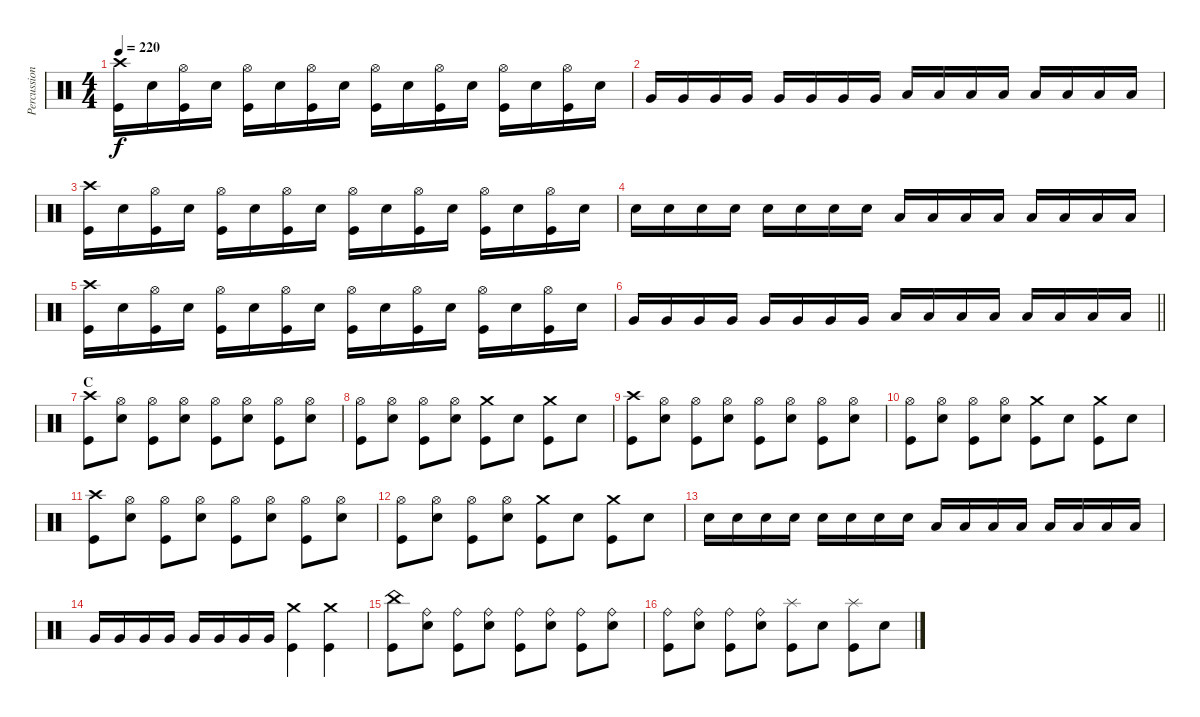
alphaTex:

\track ("Percussion" "Percussion") {instrument percussion}
\staff {score}
\articulation defaults
\ts (4 4)
\tempo 220
\clef neutral
\ks c
("Crash high (hit)" "Kick (hit)").16{dy f} "Snare (hit) 2".16 ("Hi-Hat (open)" "Kick (hit)").16 "Snare (hit) 2".16 ("Hi-Hat (open)" "Kick (hit)").16 "Snare (hit) 2".16 ("Hi-Hat (open)" "Kick (hit)").16 "Snare (hit) 2".16 ("Hi-Hat (open)" "Kick (hit)").16 "Snare (hit) 2".16 ("Hi-Hat (open)" "Kick (hit)").16 "Snare (hit) 2".16 ("Hi-Hat (open)" "Kick (hit)").16 "Snare (hit) 2".16 ("Hi-Hat (open)" "Kick (hit)").16 "Snare (hit) 2".16 |
"Very Low Tom (hit)".16 "Very Low Tom (hit)".16 "Very Low Tom (hit)".16 "Very Low Tom (hit)".16 "Very Low Tom (hit)".16 "Very Low Tom (hit)".16 "Very Low Tom (hit)".16 "Very Low Tom (hit)".16 "Low Floor Tom (hit)".16 "Low Floor Tom (hit)".16 "Low Floor Tom (hit)".16 "Low Floor Tom (hit)".16 "Low Floor Tom (hit)".16 "Low Floor Tom (hit)".16 "Low Floor Tom (hit)".16 "Low Floor Tom (hit)".16 |
("Crash high (hit)" "Kick (hit)").16 "Snare (hit) 2".16 ("Hi-Hat (open)" "Kick (hit)").16 "Snare (hit) 2".16 ("Hi-Hat (open)" "Kick (hit)").16 "Snare (hit) 2".16 ("Hi-Hat (open)" "Kick (hit)").16 "Snare (hit) 2".16 ("Hi-Hat (open)" "Kick (hit)").16 "Snare (hit) 2".16 ("Hi-Hat (open)" "Kick (hit)").16 "Snare (hit) 2".16 ("Hi-Hat (open)" "Kick (hit)").16 "Snare (hit) 2".16 ("Hi-Hat (open)" "Kick (hit)").16 "Snare (hit) 2".16 |
"Snare (hit) 2".16 "Snare (hit) 2".16 "Snare (hit) 2".16 "Snare (hit) 2".16 "Snare (hit) 2".16 "Snare (hit) 2".16 "Snare (hit) 2".16 "Snare (hit) 2".16 "Low Tom (hit)".16 "Low Tom (hit)".16 "Low Tom (hit)".16 "Low Tom (hit)".16 "Low Tom (hit)".16 "Low Tom (hit)".16 "Low Tom (hit)".16 "Low Tom (hit)".16 |
("Crash high (hit)" "Kick (hit)").16 "Snare (hit) 2".16 ("Hi-Hat (open)" "Kick (hit)").16 "Snare (hit) 2".16 ("Hi-Hat (open)" "Kick (hit)").16 "Snare (hit) 2".16 ("Hi-Hat (open)" "Kick (hit)").16 "Snare (hit) 2".16 ("Hi-Hat (open)" "Kick (hit)").16 "Snare (hit) 2".16 ("Hi-Hat (open)" "Kick (hit)").16 "Snare (hit) 2".16 ("Hi-Hat (open)" "Kick (hit)").16 "Snare (hit) 2".16 ("Hi-Hat (open)" "Kick (hit)").16 "Snare (hit) 2".16 |
\barLineRight lightlight "Very Low Tom (hit)".16 "Very Low Tom (hit)".16 "Very Low Tom (hit)".16 "Very Low Tom (hit)".16 "Very Low Tom (hit)".16 "Very Low Tom (hit)".16 "Very Low Tom (hit)".16 "Very Low Tom (hit)".16 "Low Floor Tom (hit)".16 "Low Floor Tom (hit)".16 "Low Floor Tom (hit)".16 "Low Floor Tom (hit)".16 "Low Floor Tom (hit)".16 "Low Floor Tom (hit)".16 "Low Floor Tom (hit)".16 "Low Floor Tom (hit)".16
|
\section ("" "C")
("Crash high (hit)" "Kick (hit)").8 ("Hi-Hat (open)" "Snare (hit) 2").8 ("Hi-Hat (open)" "Kick (hit)").8 ("Hi-Hat (open)" "Snare (hit) 2").8 ("Hi-Hat (open)" "Kick (hit)").8 ("Hi-Hat (open)" "Snare (hit) 2").8 ("Hi-Hat (open)" "Kick (hit)").8 ("Hi-Hat (open)" "Snare (hit) 2").8 |
("Hi-Hat (open)" "Kick (hit)").8 ("Hi-Hat (open)" "Snare (hit) 2").8 ("Hi-Hat (open)" "Kick (hit)").8 ("Hi-Hat (open)" "Snare (hit) 2").8 ("Crash medium (hit)" "Kick (hit)").8 "Snare (hit) 2".8 ("Crash medium (hit)" "Kick (hit)").8 "Snare (hit) 2".8 |
("Crash high (hit)" "Kick (hit)").8 ("Hi-Hat (open)" "Snare (hit) 2").8 ("Hi-Hat (open)" "Kick (hit)").8 ("Hi-Hat (open)" "Snare (hit) 2").8 ("Hi-Hat (open)" "Kick (hit)").8 ("Hi-Hat (open)" "Snare (hit) 2").8 ("Hi-Hat (open)" "Kick (hit)").8 ("Hi-Hat (open)" "Snare (hit) 2").8 |
("Hi-Hat (open)" "Kick (hit)").8 ("Hi-Hat (open)" "Snare (hit) 2").8 ("Hi-Hat (open)" "Kick (hit)").8 ("Hi-Hat (open)" "Snare (hit) 2").8 ("Crash medium (hit)" "Kick (hit)").8 "Snare (hit) 2".8 ("Crash medium (hit)" "Kick (hit)").8 "Snare (hit) 2".8 |
("Crash high (hit)" "Kick (hit)").8 ("Hi-Hat (open)" "Snare (hit) 2").8 ("Hi-Hat (open)" "Kick (hit)").8 ("Hi-Hat (open)" "Snare (hit) 2").8 ("Hi-Hat (open)" "Kick (hit)").8 ("Hi-Hat (open)" "Snare (hit) 2").8 ("Hi-Hat (open)" "Kick (hit)").8 ("Hi-Hat (open)" "Snare (hit) 2").8 |
("Hi-Hat (open)" "Kick (hit)").8 ("Hi-Hat (open)" "Snare (hit) 2").8 ("Hi-Hat (open)" "Kick (hit)").8 ("Hi-Hat (open)" "Snare (hit) 2").8 ("Crash medium (hit)" "Kick (hit)").8 "Snare (hit) 2".8 ("Crash medium (hit)" "Kick (hit)").8 "Snare (hit) 2".8 |
"Snare (hit) 2".16 "Snare (hit) 2".16 "Snare (hit) 2".16 "Snare (hit) 2".16 "Snare (hit) 2".16 "Snare (hit) 2".16 "Snare (hit) 2".16 "Snare (hit) 2".16 "Low Tom (hit)".16 "Low Tom (hit)".16 "Low Tom (hit)".16 "Low Tom (hit)".16 "Low Tom (hit)".16 "Low Tom (hit)".16 "Low Tom (hit)".16 "Low Tom (hit)".16 |
"Very Low Tom (hit)".16 "Very Low Tom (hit)".16 "Very Low Tom (hit)".16 "Very Low Tom (hit)".16 "Very Low Tom (hit)".16 "Very Low Tom (hit)".16 "Very Low Tom (hit)".16 "Very Low Tom (hit)".16 ("Crash medium (hit)" "Kick (hit)").4 ("Crash medium (hit)" "Kick (hit)").4 |
("China (hit)" "Kick (hit)").8 ("Ride (bell)" "Snare (hit) 2").8 ("Ride (bell)" "Kick (hit)").8 ("Ride (bell)" "Snare (hit) 2").8 ("Ride (bell)" "Kick (hit)").8 ("Ride (bell)" "Snare (hit) 2").8 ("Ride (bell)" "Kick (hit)").8 ("Ride (bell)" "Snare (hit) 2").8 |
("Ride (bell)" "Kick (hit)").8 ("Ride (bell)" "Snare (hit) 2").8 ("Ride (bell)" "Kick (hit)").8 ("Ride (bell)" "Snare (hit) 2").8 ("Splash (hit)" "Kick (hit)").8 "Snare (hit) 2".8 ("Splash (hit)" "Kick (hit)").8 "Snare (hit) 2".8
